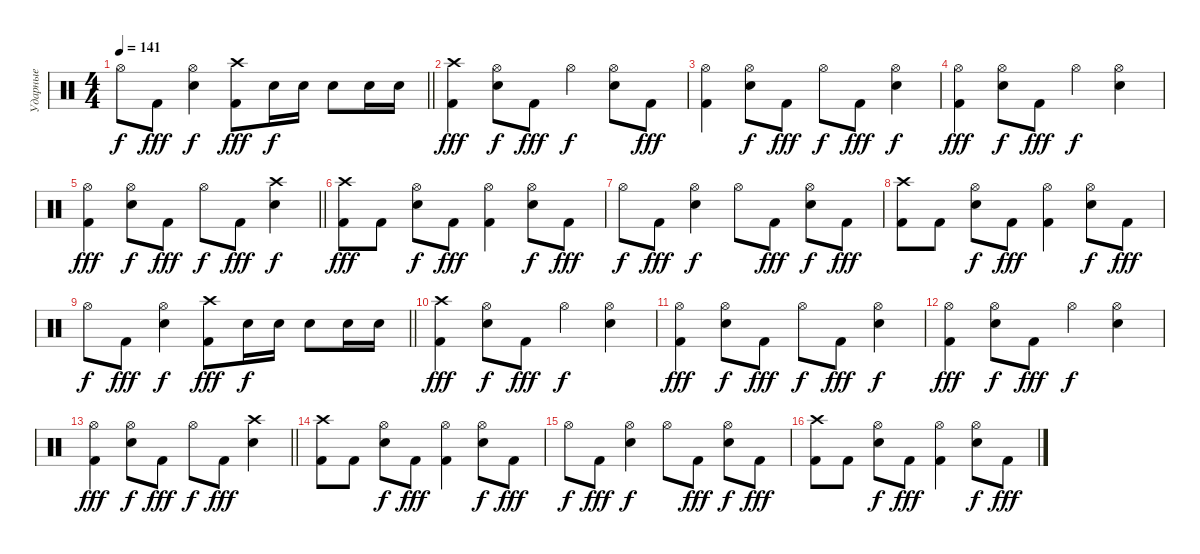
\track ("Ударные" "Ударные") {instrument percussion}
\staff {score}
\articulation defaults
\ts (4 4)
\tempo 141
\clef neutral
\barLineRight lightlight
\ks c "Hi-Hat (open)".8{dy f} "Kick (hit) 2".8{dy fff}
("Snare (hit) 2" "Hi-Hat (open)").4{dy f} ("Kick (hit) 2" "Crash high (hit)").8{dy fff} "Snare (hit) 2".16{dy f} "Snare (hit) 2".16 "Snare (hit) 2".8 "Snare (hit) 2".16 "Snare (hit) 2".16 |
("Kick (hit) 2" "Crash high (hit)").4{dy fff} ("Snare (hit) 2" "Hi-Hat (open)").8{dy f} "Kick (hit) 2".8{dy fff} "Hi-Hat (open)".4{dy f} ("Snare (hit) 2" "Hi-Hat (open)").8 "Kick (hit) 2".8{dy fff} |
("Kick (hit) 2" "Hi-Hat (open)").4 ("Snare (hit) 2" "Hi-Hat (open)").8{dy f} "Kick (hit) 2".8{dy fff} "Hi-Hat (open)".8{dy f} "Kick (hit) 2".8{dy fff} ("Snare (hit) 2" "Hi-Hat (open)").4{dy f} |
("Kick (hit) 2" "Hi-Hat (open)").4{dy fff} ("Snare (hit) 2" "Hi-Hat (open)").8{dy f} "Kick (hit) 2".8{dy fff} "Hi-Hat (open)".4{dy f} ("Snare (hit) 2" "Hi-Hat (open)").4 |
\barLineRight lightlight
("Kick (hit) 2" "Hi-Hat (open)").4{dy fff} ("Snare (hit) 2" "Hi-Hat (open)").8{dy f} "Kick (hit) 2".8{dy fff} "Hi-Hat (open)".8{dy f} "Kick (hit) 2".8{dy fff} ("Snare (hit) 2" "Crash high (hit)").4{dy f} |
("Kick (hit) 2" "Crash high (hit)").8{dy fff} "Kick (hit) 2".8 ("Snare (hit) 2" "Hi-Hat (open)").8{dy f} "Kick (hit) 2".8{dy fff} ("Kick (hit) 2" "Hi-Hat (open)").4 ("Snare (hit) 2" "Hi-Hat (open)").8{dy f} "Kick (hit) 2".8{dy fff} |
"Hi-Hat (open)".8{dy f} "Kick (hit) 2".8{dy fff} ("Snare (hit) 2" "Hi-Hat (open)").4{dy f} "Hi-Hat (open)".8 "Kick (hit) 2".8{dy fff} ("Snare (hit) 2" "Hi-Hat (open)").8{dy f} "Kick (hit) 2".8{dy fff} |
("Kick (hit) 2" "Crash high (hit)").8 "Kick (hit) 2".8 ("Snare (hit) 2" "Hi-Hat (open)").8{dy f} "Kick (hit) 2".8{dy fff} ("Kick (hit) 2" "Hi-Hat (open)").4 ("Snare (hit) 2" "Hi-Hat (open)").8{dy f} "Kick (hit) 2".8{dy fff} |
\barLineRight lightlight "Hi-Hat (open)".8{dy f} "Kick (hit) 2".8{dy fff}
("Snare (hit) 2" "Hi-Hat (open)").4{dy f} ("Kick (hit) 2" "Crash high (hit)").8{dy fff} "Snare (hit) 2".16{dy f} "Snare (hit) 2".16 "Snare (hit) 2".8 "Snare (hit) 2".16 "Snare (hit) 2".16 |
("Kick (hit) 2" "Crash high (hit)").4{dy fff} ("Snare (hit) 2" "Hi-Hat (open)").8{dy f} "Kick (hit) 2".8{dy fff} "Hi-Hat (open)".4{dy f} ("Snare (hit) 2" "Hi-Hat (open)").4 |
("Kick (hit) 2" "Hi-Hat (open)").4{dy fff} ("Snare (hit) 2" "Hi-Hat (open)").8{dy f} "Kick (hit) 2".8{dy fff} "Hi-Hat (open)".8{dy f} "Kick (hit) 2".8{dy fff} ("Snare (hit) 2" "Hi-Hat (open)").4{dy f} |
("Kick (hit) 2" "Hi-Hat (open)").4{dy fff} ("Snare (hit) 2" "Hi-Hat (open)").8{dy f} "Kick (hit) 2".8{dy fff} "Hi-Hat (open)".4{dy f} ("Snare (hit) 2" "Hi-Hat (open)").4 |
\barLineRight lightlight
("Kick (hit) 2" "Hi-Hat (open)").4{dy fff} ("Snare (hit) 2" "Hi-Hat (open)").8{dy f} "Kick (hit) 2".8{dy fff} "Hi-Hat (open)".8{dy f} "Kick (hit) 2".8{dy fff} ("Snare (hit) 2" "Crash high (hit)").4 |
("Kick (hit) 2" "Crash high (hit)").8 "Kick (hit) 2".8 ("Snare (hit) 2" "Hi-Hat (open)").8{dy f} "Kick (hit) 2".8{dy fff} ("Kick (hit) 2" "Hi-Hat (open)").4 ("Snare (hit) 2" "Hi-Hat (open)").8{dy f} "Kick (hit) 2".8{dy fff} |
"Hi-Hat (open)".8{dy f} "Kick (hit) 2".8{dy fff} ("Snare (hit) 2" "Hi-Hat (open)").4{dy f} "Hi-Hat (open)".8 "Kick (hit) 2".8{dy fff} ("Snare (hit) 2" "Hi-Hat (open)").8{dy f} "Kick (hit) 2".8{dy fff} |
("Kick (hit) 2" "Crash high (hit)").8 "Kick (hit) 2".8 ("Snare (hit) 2" "Hi-Hat (open)").8{dy f} "Kick (hit) 2".8{dy fff} ("Kick (hit) 2" "Hi-Hat (open)").4 ("Snare (hit) 2" "Hi-Hat (open)").8{dy f} "Kick (hit) 2".8{dy fff}
